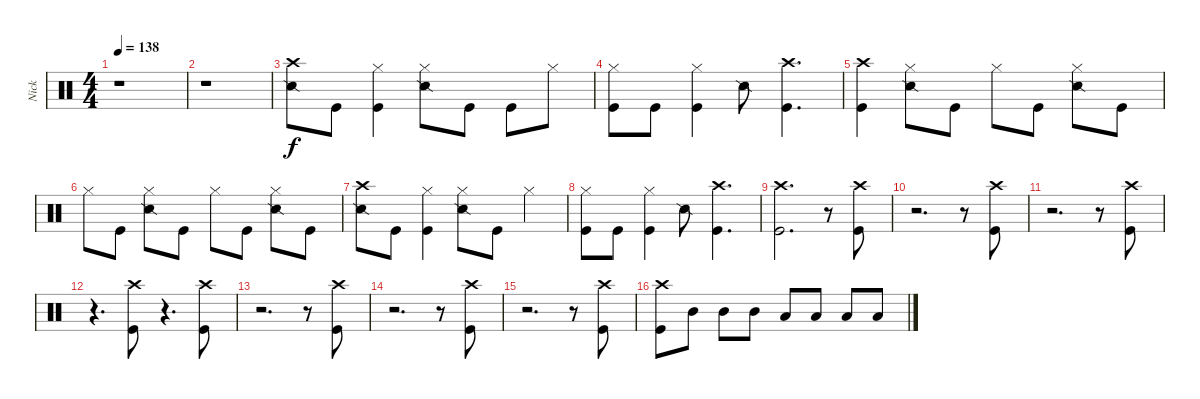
\track ("Nick" "Nick") {instrument percussion}
\staff {score}
\articulation defaults
\ts (4 4)
\tempo 138
\clef neutral
\ks c
r.1{dy f} |
r.1 |
("Crash high (hit)" "Snare (side stick) 2").8 "Kick (hit)".8 ("Hi-Hat (closed)" "Kick (hit)").4 ("Hi-Hat (closed)" "Snare (side stick) 2").8 "Kick (hit)".8 "Kick (hit)".8 "Hi-Hat (closed)".8 |
("Hi-Hat (closed)" "Kick (hit)").8 "Kick (hit)".8 ("Hi-Hat (closed)" "Kick (hit)").4 "Snare (side stick) 2".8 ("Crash high (hit)" "Kick (hit)").4{d} |
("Crash high (hit)" "Kick (hit)").4 ("Hi-Hat (closed)" "Snare (side stick) 2").8 "Kick (hit)".8 "Hi-Hat (closed)".8 "Kick (hit)".8 ("Hi-Hat (closed)" "Snare (side stick) 2").8 "Kick (hit)".8 |
"Hi-Hat (closed)".8 "Kick (hit)".8 ("Hi-Hat (closed)" "Snare (side stick) 2").8 "Kick (hit)".8 "Hi-Hat (closed)".8 "Kick (hit)".8 ("Hi-Hat (closed)" "Snare (side stick) 2").8 "Kick (hit)".8 |
("Crash high (hit)" "Snare (side stick) 2").8 "Kick (hit)".8 ("Hi-Hat (closed)" "Kick (hit)").4 ("Hi-Hat (closed)" "Snare (side stick) 2").8 "Kick (hit)".8 "Hi-Hat (closed)".4 |
("Hi-Hat (closed)" "Kick (hit)").8 "Kick (hit)".8 ("Hi-Hat (closed)" "Kick (hit)").4 "Snare (side stick) 2".8 ("Crash high (hit)" "Kick (hit)").4{d} |
("Crash high (hit)" "Kick (hit)").2{d} r.8 ("Crash high (hit)" "Kick (hit)").8 |
r.2{d} r.8 ("Crash high (hit)" "Kick (hit)").8 |
r.2{d} r.8 ("Crash high (hit)" "Kick (hit)").8 |
r.4{d} ("Crash high (hit)" "Kick (hit)").8 r.4{d} ("Crash high (hit)" "Kick (hit)").8 |
r.2{d} r.8 ("Crash high (hit)" "Kick (hit)").8 |
r.2{d} r.8 ("Crash high (hit)" "Kick (hit)").8 |
r.2{d} r.8 ("Crash high (hit)" "Kick (hit)").8 |
("Crash high (hit)" "Kick (hit)").8 "Mid Tom (hit)".8 "Mid Tom (hit)".8 "Mid Tom (hit)".8 "Low Tom (hit)".8 "Low Tom (hit)".8 "Low Tom (hit)".8 "Low Floor Tom (hit)".8
